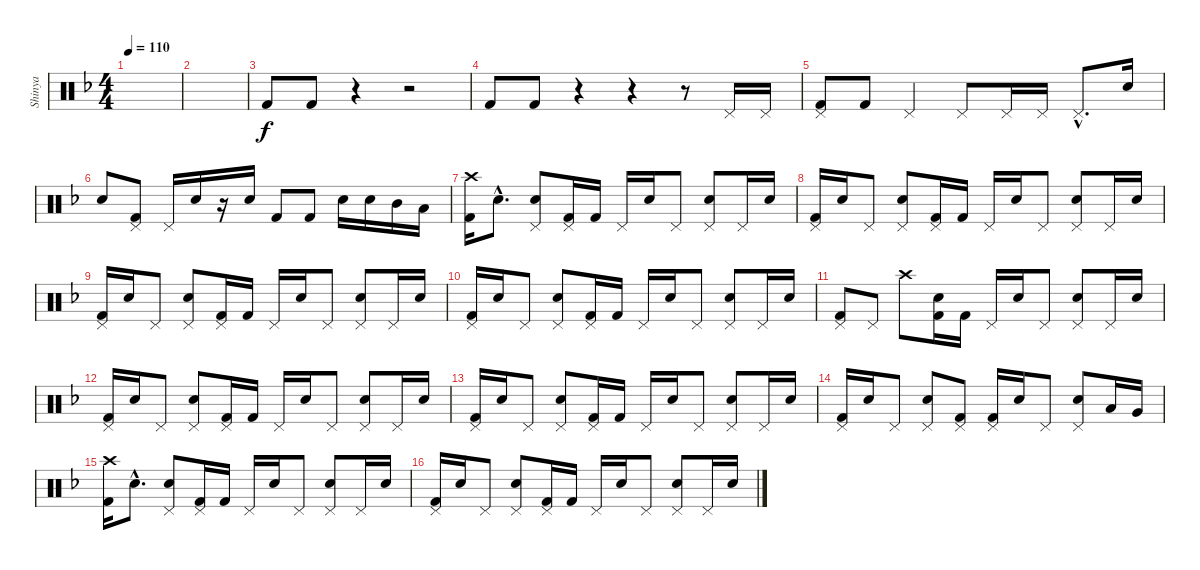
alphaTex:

\track ("Shinya" "Shinya") {instrument percussion}
\staff {score}
\articulation defaults
\ts (4 4)
\tempo 110
\clef neutral
\ks f
|
|
"Kick (hit) 2".8 "Kick (hit) 2".8 r.4 r.2 |
"Kick (hit) 2".8 "Kick (hit) 2".8 r.4 r.4 r.8 "Pedal Hi-Hat (hit)".16 "Pedal Hi-Hat (hit)".16 |
("Pedal Hi-Hat (hit)" "Kick (hit) 2").8 "Kick (hit) 2".8 "Pedal Hi-Hat (hit)".4 "Pedal Hi-Hat (hit)".8 "Pedal Hi-Hat (hit)".16 "Pedal Hi-Hat (hit)".16 "Pedal Hi-Hat (hit)"{hac}.8{d} "Electric Snare (hit)".16 |
"Electric Snare (hit)".8 ("Pedal Hi-Hat (hit)" "Kick (hit) 2").8 "Pedal Hi-Hat (hit)".16 "Electric Snare (hit)".16 r.16 "Electric Snare (hit)".16 "Kick (hit) 2".8 "Kick (hit) 2".8 "Electric Snare (hit)".16 "Electric Snare (hit)".16 "Mid Tom (hit)".16 "Low Tom (hit)".16 |
("Crash high (hit)" "Kick (hit) 2").16 "Electric Snare (hit)"{hac}.8{d} ("Pedal Hi-Hat (hit)" "Electric Snare (hit)").8 ("Pedal Hi-Hat (hit)" "Kick (hit) 2").16 "Kick (hit) 2".16 "Pedal Hi-Hat (hit)".16 "Electric Snare (hit)".16 "Pedal Hi-Hat (hit)".8 ("Pedal Hi-Hat (hit)" "Electric Snare (hit)").8 "Pedal Hi-Hat (hit)".16 "Electric Snare (hit)".16 |
("Pedal Hi-Hat (hit)" "Kick (hit) 2").16 "Electric Snare (hit)".16 "Pedal Hi-Hat (hit)".8 ("Pedal Hi-Hat (hit)" "Electric Snare (hit)").8 ("Pedal Hi-Hat (hit)" "Kick (hit) 2").16 "Kick (hit) 2".16 "Pedal Hi-Hat (hit)".16 "Electric Snare (hit)".16 "Pedal Hi-Hat (hit)".8 ("Pedal Hi-Hat (hit)" "Electric Snare (hit)").8 "Pedal Hi-Hat (hit)".16 "Electric Snare (hit)".16 |
("Pedal Hi-Hat (hit)" "Kick (hit) 2").16 "Electric Snare (hit)".16 "Pedal Hi-Hat (hit)".8 ("Pedal Hi-Hat (hit)" "Electric Snare (hit)").8 ("Pedal Hi-Hat (hit)" "Kick (hit) 2").16 "Kick (hit) 2".16 "Pedal Hi-Hat (hit)".16 "Electric Snare (hit)".16 "Pedal Hi-Hat (hit)".8 ("Pedal Hi-Hat (hit)" "Electric Snare (hit)").8 "Pedal Hi-Hat (hit)".16 "Electric Snare (hit)".16 |
("Pedal Hi-Hat (hit)" "Kick (hit) 2").16 "Electric Snare (hit)".16 "Pedal Hi-Hat (hit)".8 ("Pedal Hi-Hat (hit)" "Electric Snare (hit)").8 ("Pedal Hi-Hat (hit)" "Kick (hit) 2").16 "Kick (hit) 2".16 "Pedal Hi-Hat (hit)".16 "Electric Snare (hit)".16 "Pedal Hi-Hat (hit)".8 ("Pedal Hi-Hat (hit)" "Electric Snare (hit)").8 "Pedal Hi-Hat (hit)".16 "Electric Snare (hit)".16 |
("Pedal Hi-Hat (hit)" "Kick (hit) 2").8 "Pedal Hi-Hat (hit)".8 "Crash high (hit)".8 ("Electric Snare (hit)" "Kick (hit) 2").16 "Kick (hit) 2".16 "Pedal Hi-Hat (hit)".16 "Electric Snare (hit)".16 "Pedal Hi-Hat (hit)".8 ("Pedal Hi-Hat (hit)" "Electric Snare (hit)").8 "Pedal Hi-Hat (hit)".16 "Electric Snare (hit)".16 |
("Pedal Hi-Hat (hit)" "Kick (hit) 2").16 "Electric Snare (hit)".16 "Pedal Hi-Hat (hit)".8 ("Pedal Hi-Hat (hit)" "Electric Snare (hit)").8 ("Pedal Hi-Hat (hit)" "Kick (hit) 2").16 "Kick (hit) 2".16 "Pedal Hi-Hat (hit)".16 "Electric Snare (hit)".16 "Pedal Hi-Hat (hit)".8 ("Pedal Hi-Hat (hit)" "Electric Snare (hit)").8 "Pedal Hi-Hat (hit)".16 "Electric Snare (hit)".16 |
("Pedal Hi-Hat (hit)" "Kick (hit) 2").16 "Electric Snare (hit)".16 "Pedal Hi-Hat (hit)".8 ("Pedal Hi-Hat (hit)" "Electric Snare (hit)").8 ("Pedal Hi-Hat (hit)" "Kick (hit) 2").16 "Kick (hit) 2".16 "Pedal Hi-Hat (hit)".16 "Electric Snare (hit)".16 "Pedal Hi-Hat (hit)".8 ("Pedal Hi-Hat (hit)" "Electric Snare (hit)").8 "Pedal Hi-Hat (hit)".16 "Electric Snare (hit)".16 |
("Pedal Hi-Hat (hit)" "Kick (hit) 2").16 "Electric Snare (hit)".16 "Pedal Hi-Hat (hit)".8 ("Pedal Hi-Hat (hit)" "Electric Snare (hit)").8 ("Pedal Hi-Hat (hit)" "Kick (hit) 2").8 ("Pedal Hi-Hat (hit)" "Kick (hit) 2").16 "Electric Snare (hit)".16 "Pedal Hi-Hat (hit)".8 ("Pedal Hi-Hat (hit)" "Electric Snare (hit)").8 "Low Tom (hit)".16 "Very Low Tom (hit)".16 |
("Crash high (hit)" "Kick (hit) 2").16 "Electric Snare (hit)"{hac}.8{d} ("Pedal Hi-Hat (hit)" "Electric Snare (hit)").8 ("Pedal Hi-Hat (hit)" "Kick (hit) 2").16 "Kick (hit) 2".16 "Pedal Hi-Hat (hit)".16 "Electric Snare (hit)".16 "Pedal Hi-Hat (hit)".8 ("Pedal Hi-Hat (hit)" "Electric Snare (hit)").8 "Pedal Hi-Hat (hit)".16 "Electric Snare (hit)".16 |
("Pedal Hi-Hat (hit)" "Kick (hit) 2").16 "Electric Snare (hit)".16 "Pedal Hi-Hat (hit)".8 ("Pedal Hi-Hat (hit)" "Electric Snare (hit)").8 ("Pedal Hi-Hat (hit)" "Kick (hit) 2").16 "Kick (hit) 2".16 "Pedal Hi-Hat (hit)".16 "Electric Snare (hit)".16 "Pedal Hi-Hat (hit)".8 ("Pedal Hi-Hat (hit)" "Electric Snare (hit)").8 "Pedal Hi-Hat (hit)".16 "Electric Snare (hit)".16
